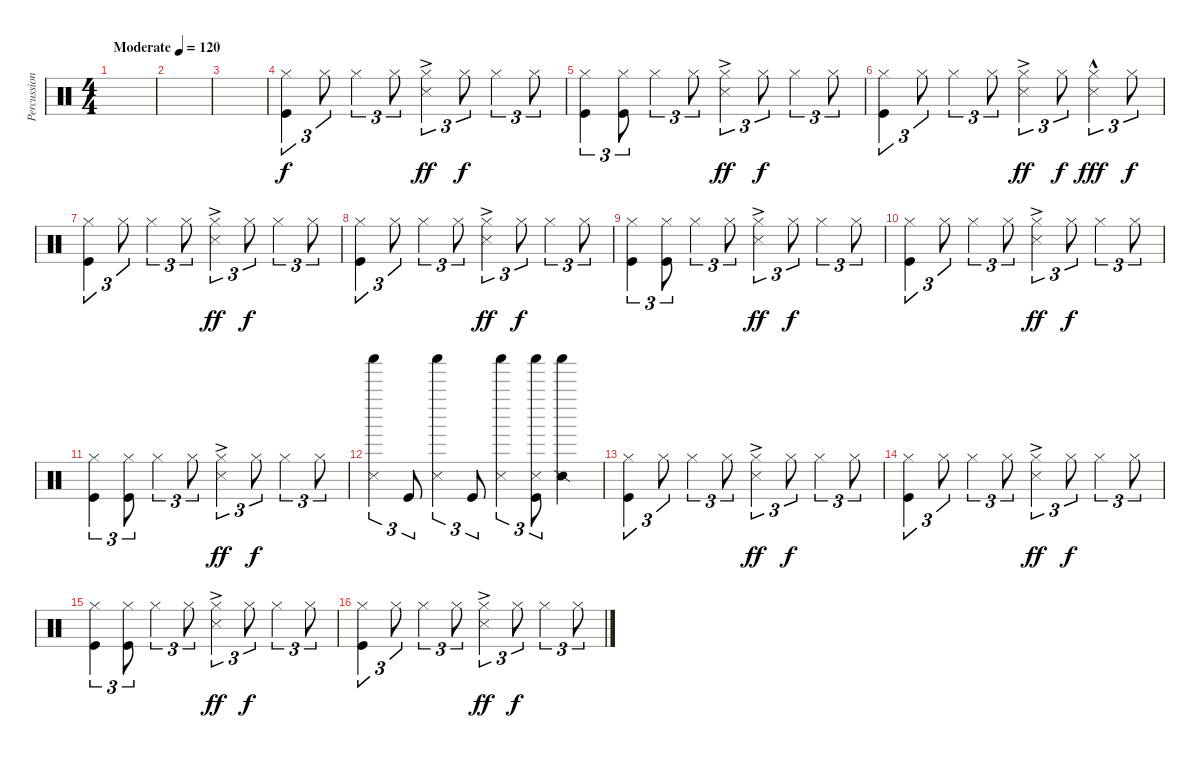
\track ("Percussions" "Percussion") {instrument percussion bank 1}
\staff {score}
\articulation defaults
\ts (4 4)
\tempo (120 "Moderate")
\clef neutral
\ks c
|
|
|
("Kick (hit)" "Hi-Hat (closed)").4{tu (3 2)} "Hi-Hat (closed)".8{tu (3 2)} "Hi-Hat (closed)".4{tu (3 2)} "Hi-Hat (closed)".8{tu (3 2)} ("Snare (side stick) 3"{ac} "Hi-Hat (closed)").4{tu (3 2) dy ff} "Hi-Hat (closed)".8{tu (3 2) dy f} "Hi-Hat (closed)".4{tu (3 2)} "Hi-Hat (closed)".8{tu (3 2)} |
("Hi-Hat (closed)" "Kick (hit)").4{tu (3 2)} ("Kick (hit)" "Hi-Hat (closed)").8{tu (3 2)} "Hi-Hat (closed)".4{tu (3 2)} "Hi-Hat (closed)".8{tu (3 2)} ("Snare (side stick) 3"{ac} "Hi-Hat (closed)").4{tu (3 2) dy ff} "Hi-Hat (closed)".8{tu (3 2) dy f} "Hi-Hat (closed)".4{tu (3 2)} "Hi-Hat (closed)".8{tu (3 2)} |
("Kick (hit)" "Hi-Hat (closed)").4{tu (3 2)} "Hi-Hat (closed)".8{tu (3 2)} "Hi-Hat (closed)".4{tu (3 2)} "Hi-Hat (closed)".8{tu (3 2)} ("Snare (side stick) 3"{ac} "Hi-Hat (closed)").4{tu (3 2) dy ff} "Hi-Hat (closed)".8{tu (3 2) dy f} ("Hi-Hat (closed)" "Snare (side stick) 3"{hac}).4{tu (3 2) dy fff} "Hi-Hat (closed)".8{tu (3 2) dy f} |
("Hi-Hat (closed)" "Kick (hit)").4{tu (3 2)} "Hi-Hat (closed)".8{tu (3 2)} "Hi-Hat (closed)".4{tu (3 2)} "Hi-Hat (closed)".8{tu (3 2)} ("Snare (side stick) 3"{ac} "Hi-Hat (closed)").4{tu (3 2) dy ff} "Hi-Hat (closed)".8{tu (3 2) dy f} "Hi-Hat (closed)".4{tu (3 2)} "Hi-Hat (closed)".8{tu (3 2)} |
("Kick (hit)" "Hi-Hat (closed)").4{tu (3 2)} "Hi-Hat (closed)".8{tu (3 2)} "Hi-Hat (closed)".4{tu (3 2)} "Hi-Hat (closed)".8{tu (3 2)} ("Snare (side stick) 3"{ac} "Hi-Hat (closed)").4{tu (3 2) dy ff} "Hi-Hat (closed)".8{tu (3 2) dy f} "Hi-Hat (closed)".4{tu (3 2)} "Hi-Hat (closed)".8{tu (3 2)} |
("Hi-Hat (closed)" "Kick (hit)").4{tu (3 2)} ("Kick (hit)" "Hi-Hat (closed)").8{tu (3 2)} "Hi-Hat (closed)".4{tu (3 2)} "Hi-Hat (closed)".8{tu (3 2)} ("Snare (side stick) 3"{ac} "Hi-Hat (closed)").4{tu (3 2) dy ff} "Hi-Hat (closed)".8{tu (3 2) dy f} "Hi-Hat (closed)".4{tu (3 2)} "Hi-Hat (closed)".8{tu (3 2)} |
("Kick (hit)" "Hi-Hat (closed)").4{tu (3 2)} "Hi-Hat (closed)".8{tu (3 2)} "Hi-Hat (closed)".4{tu (3 2)} "Hi-Hat (closed)".8{tu (3 2)} ("Snare (side stick) 3"{ac} "Hi-Hat (closed)").4{tu (3 2) dy ff} "Hi-Hat (closed)".8{tu (3 2) dy f} "Hi-Hat (closed)".4{tu (3 2)} "Hi-Hat (closed)".8{tu (3 2)} |
("Hi-Hat (closed)" "Kick (hit)").4{tu (3 2)} ("Kick (hit)" "Hi-Hat (closed)").8{tu (3 2)} "Hi-Hat (closed)".4{tu (3 2)} "Hi-Hat (closed)".8{tu (3 2)} ("Snare (side stick) 3"{ac} "Hi-Hat (closed)").4{tu (3 2) dy ff} "Hi-Hat (closed)".8{tu (3 2) dy f} "Hi-Hat (closed)".4{tu (3 2)} "Hi-Hat (closed)".8{tu (3 2)} |
("Snare (side stick) 3" "Shaker (hit)").4{tu (3 2)} "Kick (hit)".8{tu (3 2)} ("Snare (side stick) 3" "Shaker (hit)").4{tu (3 2)} "Kick (hit)".8{tu (3 2)} ("Snare (side stick) 3" "Shaker (hit)").4{tu (3 2)} ("Kick (hit)" "Snare (side stick) 3" "Shaker (hit)").8{tu (3 2)} ("Shaker (hit)" "Snare (side stick) 2").4 |
("Hi-Hat (closed)" "Kick (hit)").4{tu (3 2)} "Hi-Hat (closed)".8{tu (3 2)} "Hi-Hat (closed)".4{tu (3 2)} "Hi-Hat (closed)".8{tu (3 2)} ("Snare (side stick) 3"{ac} "Hi-Hat (closed)").4{tu (3 2) dy ff} "Hi-Hat (closed)".8{tu (3 2) dy f} "Hi-Hat (closed)".4{tu (3 2)} "Hi-Hat (closed)".8{tu (3 2)} |
("Kick (hit)" "Hi-Hat (closed)").4{tu (3 2)} "Hi-Hat (closed)".8{tu (3 2)} "Hi-Hat (closed)".4{tu (3 2)} "Hi-Hat (closed)".8{tu (3 2)} ("Snare (side stick) 3"{ac} "Hi-Hat (closed)").4{tu (3 2) dy ff} "Hi-Hat (closed)".8{tu (3 2) dy f} "Hi-Hat (closed)".4{tu (3 2)} "Hi-Hat (closed)".8{tu (3 2)} |
("Hi-Hat (closed)" "Kick (hit)").4{tu (3 2)} ("Kick (hit)" "Hi-Hat (closed)").8{tu (3 2)} "Hi-Hat (closed)".4{tu (3 2)} "Hi-Hat (closed)".8{tu (3 2)} ("Snare (side stick) 3"{ac} "Hi-Hat (closed)").4{tu (3 2) dy ff} "Hi-Hat (closed)".8{tu (3 2) dy f} "Hi-Hat (closed)".4{tu (3 2)} "Hi-Hat (closed)".8{tu (3 2)} |
("Kick (hit)" "Hi-Hat (closed)").4{tu (3 2)} "Hi-Hat (closed)".8{tu (3 2)} "Hi-Hat (closed)".4{tu (3 2)} "Hi-Hat (closed)".8{tu (3 2)} ("Snare (side stick) 3"{ac} "Hi-Hat (closed)").4{tu (3 2) dy ff} "Hi-Hat (closed)".8{tu (3 2) dy f} "Hi-Hat (closed)".4{tu (3 2)} "Hi-Hat (closed)".8{tu (3 2)}
